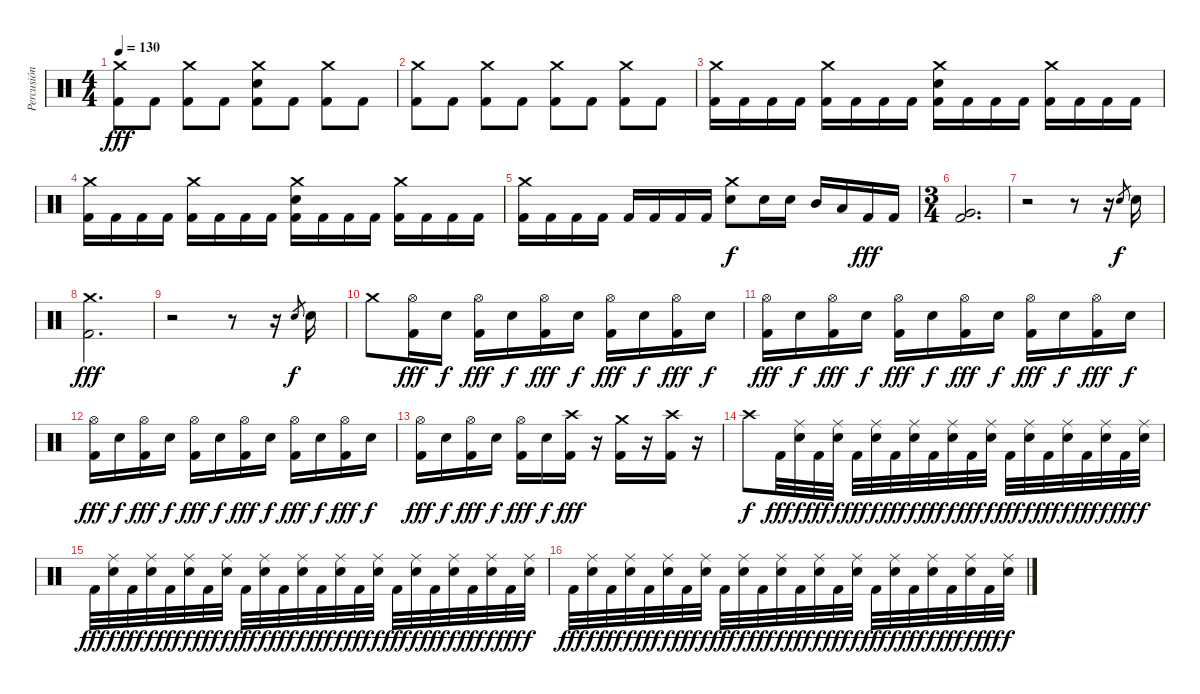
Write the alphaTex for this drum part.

\track ("Percusión" "Percusión") {instrument percussion}
\staff {score}
\articulation defaults
\ts (4 4)
\tempo 130
\clef neutral
\ks c
("Crash medium (hit)" "Kick (hit) 2").8{dy fff} "Kick (hit) 2".8 ("Crash medium (hit)" "Kick (hit) 2").8 "Kick (hit) 2".8 ("Crash medium (hit)" "Electric Snare (hit)" "Kick (hit) 2").8 "Kick (hit) 2".8 ("Crash medium (hit)" "Kick (hit) 2").8 "Kick (hit) 2".8 |
("Crash medium (hit)" "Kick (hit) 2").8 "Kick (hit) 2".8 ("Crash medium (hit)" "Kick (hit) 2").8 "Kick (hit) 2".8 ("Crash medium (hit)" "Kick (hit) 2").8 "Kick (hit) 2".8 ("Crash medium (hit)" "Kick (hit) 2").8 "Kick (hit) 2".8 |
("Crash medium (hit)" "Kick (hit) 2").16 "Kick (hit) 2".16 "Kick (hit) 2".16 "Kick (hit) 2".16 ("Crash medium (hit)" "Kick (hit) 2").16 "Kick (hit) 2".16 "Kick (hit) 2".16 "Kick (hit) 2".16 ("Crash medium (hit)" "Electric Snare (hit)" "Kick (hit) 2").16 "Kick (hit) 2".16 "Kick (hit) 2".16 "Kick (hit) 2".16 ("Crash medium (hit)" "Kick (hit) 2").16 "Kick (hit) 2".16 "Kick (hit) 2".16 "Kick (hit) 2".16 |
("Crash medium (hit)" "Kick (hit) 2").16 "Kick (hit) 2".16 "Kick (hit) 2".16 "Kick (hit) 2".16 ("Crash medium (hit)" "Kick (hit) 2").16 "Kick (hit) 2".16 "Kick (hit) 2".16 "Kick (hit) 2".16 ("Crash medium (hit)" "Electric Snare (hit)" "Kick (hit) 2").16 "Kick (hit) 2".16 "Kick (hit) 2".16 "Kick (hit) 2".16 ("Crash medium (hit)" "Kick (hit) 2").16 "Kick (hit) 2".16 "Kick (hit) 2".16 "Kick (hit) 2".16 |
("Crash medium (hit)" "Kick (hit) 2").16 "Kick (hit) 2".16 "Kick (hit) 2".16 "Kick (hit) 2".16 "Kick (hit) 2".16 "Kick (hit) 2".16 "Kick (hit) 2".16 "Kick (hit) 2".16 ("Crash medium (hit)" "Electric Snare (hit)").8{dy f} "Electric Snare (hit)".16 "Electric Snare (hit)".16 "Mid Tom (hit)".16 "Low Tom (hit)".16 "Kick (hit) 2".16{dy fff} "Kick (hit) 2".16 |
\ts (3 4)
("Very Low Tom (hit)" "Kick (hit) 2").2{d} |
r.2 r.8 r.16 "Electric Snare (hit)".8{gr dy f} "Electric Snare (hit)".16 |
("Crash medium (hit)" "Kick (hit) 2").2{d dy fff} |
r.2 r.8 r.16 "Electric Snare (hit)".8{gr dy f} "Electric Snare (hit)".16 |
"Crash medium (hit)".8 ("Hi-Hat (open)" "Kick (hit) 2").16{dy fff} "Electric Snare (hit)".16{dy f} ("Hi-Hat (open)" "Kick (hit) 2").16{dy fff} "Electric Snare (hit)".16{dy f} ("Hi-Hat (open)" "Kick (hit) 2").16{dy fff} "Electric Snare (hit)".16{dy f} ("Hi-Hat (open)" "Kick (hit) 2").16{dy fff} "Electric Snare (hit)".16{dy f} ("Hi-Hat (open)" "Kick (hit) 2").16{dy fff} "Electric Snare (hit)".16{dy f} |
("Hi-Hat (open)" "Kick (hit) 2").16{dy fff} "Electric Snare (hit)".16{dy f} ("Hi-Hat (open)" "Kick (hit) 2").16{dy fff} "Electric Snare (hit)".16{dy f} ("Hi-Hat (open)" "Kick (hit) 2").16{dy fff} "Electric Snare (hit)".16{dy f} ("Hi-Hat (open)" "Kick (hit) 2").16{dy fff} "Electric Snare (hit)".16{dy f} ("Hi-Hat (open)" "Kick (hit) 2").16{dy fff} "Electric Snare (hit)".16{dy f} ("Hi-Hat (open)" "Kick (hit) 2").16{dy fff} "Electric Snare (hit)".16{dy f} |
("Hi-Hat (open)" "Kick (hit) 2").16{dy fff} "Electric Snare (hit)".16{dy f} ("Hi-Hat (open)" "Kick (hit) 2").16{dy fff} "Electric Snare (hit)".16{dy f} ("Hi-Hat (open)" "Kick (hit) 2").16{dy fff} "Electric Snare (hit)".16{dy f} ("Hi-Hat (open)" "Kick (hit) 2").16{dy fff} "Electric Snare (hit)".16{dy f} ("Hi-Hat (open)" "Kick (hit) 2").16{dy fff} "Electric Snare (hit)".16{dy f} ("Hi-Hat (open)" "Kick (hit) 2").16{dy fff} "Electric Snare (hit)".16{dy f} |
("Hi-Hat (open)" "Kick (hit) 2").16{dy fff} "Electric Snare (hit)".16{dy f} ("Hi-Hat (open)" "Kick (hit) 2").16{dy fff} "Electric Snare (hit)".16{dy f} ("Hi-Hat (open)" "Kick (hit) 2").16{dy fff} "Electric Snare (hit)".16{dy f} ("Crash high (hit)" "Kick (hit) 2").16{dy fff} r.16 ("Crash medium (hit)" "Kick (hit) 2").16 r.16 ("Crash high (hit)" "Kick (hit) 2").16 r.16 |
"Crash high (hit)".8{dy f} "Kick (hit) 2".32{dy fff} ("Ride (middle)" "Electric Snare (hit)").32{dy f} "Kick (hit) 2".32{dy fff} ("Ride (middle)" "Electric Snare (hit)").32{dy f} "Kick (hit) 2".32{dy fff} ("Ride (middle)" "Electric Snare (hit)").32{dy f} "Kick (hit) 2".32{dy fff} ("Ride (middle)" "Electric Snare (hit)").32{dy f} "Kick (hit) 2".32{dy fff} ("Ride (middle)" "Electric Snare (hit)").32{dy f} "Kick (hit) 2".32{dy fff} ("Ride (middle)" "Electric Snare (hit)").32{dy f} "Kick (hit) 2".32{dy fff} ("Ride (middle)" "Electric Snare (hit)").32{dy f} "Kick (hit) 2".32{dy fff} ("Ride (middle)" "Electric Snare (hit)").32{dy f} "Kick (hit) 2".32{dy fff} ("Ride (middle)" "Electric Snare (hit)").32{dy f} "Kick (hit) 2".32{dy fff} ("Ride (middle)" "Electric Snare (hit)").32{dy f} |
"Kick (hit) 2".32{dy fff} ("Ride (middle)" "Electric Snare (hit)").32{dy f} "Kick (hit) 2".32{dy fff} ("Ride (middle)" "Electric Snare (hit)").32{dy f} "Kick (hit) 2".32{dy fff} ("Ride (middle)" "Electric Snare (hit)").32{dy f} "Kick (hit) 2".32{dy fff} ("Ride (middle)" "Electric Snare (hit)").32{dy f} "Kick (hit) 2".32{dy fff} ("Ride (middle)" "Electric Snare (hit)").32{dy f} "Kick (hit) 2".32{dy fff} ("Ride (middle)" "Electric Snare (hit)").32{dy f} "Kick (hit) 2".32{dy fff} ("Ride (middle)" "Electric Snare (hit)").32{dy f} "Kick (hit) 2".32{dy fff} ("Ride (middle)" "Electric Snare (hit)").32{dy f} "Kick (hit) 2".32{dy fff} ("Ride (middle)" "Electric Snare (hit)").32{dy f} "Kick (hit) 2".32{dy fff} ("Ride (middle)" "Electric Snare (hit)").32{dy f} "Kick (hit) 2".32{dy fff} ("Ride (middle)" "Electric Snare (hit)").32{dy f} "Kick (hit) 2".32{dy fff} ("Ride (middle)" "Electric Snare (hit)").32{dy f} |
"Kick (hit) 2".32{dy fff} ("Ride (middle)" "Electric Snare (hit)").32{dy f} "Kick (hit) 2".32{dy fff} ("Ride (middle)" "Electric Snare (hit)").32{dy f} "Kick (hit) 2".32{dy fff} ("Ride (middle)" "Electric Snare (hit)").32{dy f} "Kick (hit) 2".32{dy fff} ("Ride (middle)" "Electric Snare (hit)").32{dy f} "Kick (hit) 2".32{dy fff} ("Ride (middle)" "Electric Snare (hit)").32{dy f} "Kick (hit) 2".32{dy fff} ("Ride (middle)" "Electric Snare (hit)").32{dy f} "Kick (hit) 2".32{dy fff} ("Ride (middle)" "Electric Snare (hit)").32{dy f} "Kick (hit) 2".32{dy fff} ("Ride (middle)" "Electric Snare (hit)").32{dy f} "Kick (hit) 2".32{dy fff} ("Ride (middle)" "Electric Snare (hit)").32{dy f} "Kick (hit) 2".32{dy fff} ("Ride (middle)" "Electric Snare (hit)").32{dy f} "Kick (hit) 2".32{dy fff} ("Ride (middle)" "Electric Snare (hit)").32{dy f} "Kick (hit) 2".32{dy fff} ("Ride (middle)" "Electric Snare (hit)").32{dy f}
